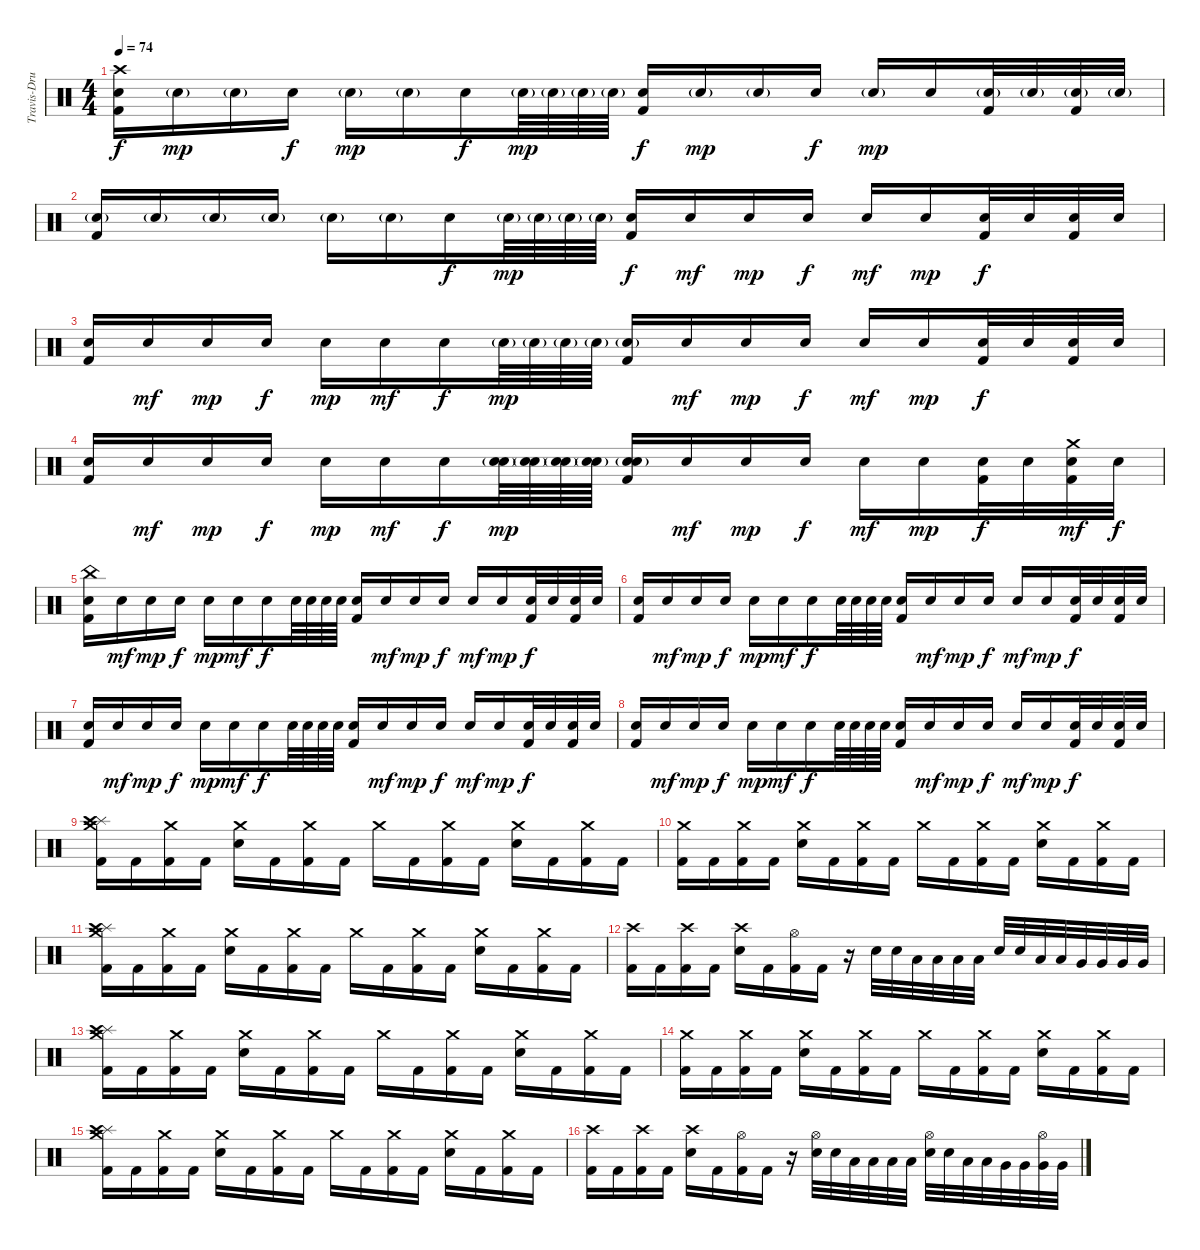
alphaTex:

\track ("Travis-Drums" "Travis-Dru") {instrument percussion}
\staff {score}
\articulation defaults
\ts (4 4)
\tempo 74
\clef neutral
\ks c
("Crash high (hit)" "Snare (hit) 2" "Kick (hit) 2").16{dy f} "Snare (hit) 2"{g}.16{dy mp} "Snare (hit) 2"{g}.16 "Snare (hit) 2".16{dy f} "Snare (hit) 2"{g}.16{dy mp} "Snare (hit) 2"{g}.16 "Snare (hit) 2".16{dy f} "Snare (hit) 2"{g}.64{dy mp} "Snare (hit) 2"{g}.64 "Snare (hit) 2"{g}.64 "Snare (hit) 2"{g}.64 ("Snare (hit) 2" "Kick (hit) 2").16{dy f} "Snare (hit) 2"{g}.16{dy mp} "Snare (hit) 2"{g}.16 "Snare (hit) 2".16{dy f} "Snare (hit) 2"{g}.16{dy mp} "Snare (hit) 2".16 ("Snare (hit) 2"{g} "Kick (hit) 2").32 "Snare (hit) 2"{g}.32 ("Snare (hit) 2"{g} "Kick (hit) 2").32 "Snare (hit) 2"{g}.32 |
("Snare (hit) 2"{g} "Kick (hit) 2").16 "Snare (hit) 2"{g}.16 "Snare (hit) 2"{g}.16 "Snare (hit) 2"{g}.16 "Snare (hit) 2"{g}.16 "Snare (hit) 2"{g}.16 "Snare (hit) 2".16{dy f} "Snare (hit) 2"{g}.64{dy mp} "Snare (hit) 2"{g}.64 "Snare (hit) 2"{g}.64 "Snare (hit) 2"{g}.64 ("Snare (hit) 2" "Kick (hit) 2").16{dy f} "Snare (hit) 2".16{dy mf} "Snare (hit) 2".16{dy mp} "Snare (hit) 2".16{dy f} "Snare (hit) 2".16{dy mf} "Snare (hit) 2".16{dy mp} ("Snare (hit) 2" "Kick (hit) 2").32{dy f} "Snare (hit) 2".32 ("Snare (hit) 2" "Kick (hit) 2").32 "Snare (hit) 2".32 |
("Snare (hit) 2" "Kick (hit) 2").16 "Snare (hit) 2".16{dy mf} "Snare (hit) 2".16{dy mp} "Snare (hit) 2".16{dy f} "Snare (hit) 2".16{dy mp} "Snare (hit) 2".16{dy mf} "Snare (hit) 2".16{dy f} "Snare (hit) 2"{g}.64{dy mp} "Snare (hit) 2"{g}.64 "Snare (hit) 2"{g}.64 "Snare (hit) 2"{g}.64 ("Snare (hit) 2"{g} "Kick (hit) 2").16 "Snare (hit) 2".16{dy mf} "Snare (hit) 2".16{dy mp} "Snare (hit) 2".16{dy f} "Snare (hit) 2".16{dy mf} "Snare (hit) 2".16{dy mp} ("Snare (hit) 2" "Kick (hit) 2").32{dy f} "Snare (hit) 2".32 ("Snare (hit) 2" "Kick (hit) 2").32 "Snare (hit) 2".32 |
("Snare (hit) 2" "Kick (hit) 2").16 "Snare (hit) 2".16{dy mf} "Snare (hit) 2".16{dy mp} "Snare (hit) 2".16{dy f} "Snare (hit) 2".16{dy mp} "Snare (hit) 2".16{dy mf} "Snare (hit) 2".16{dy f} ("Snare (hit) 2"{g} "Snare (hit) 2"{g}).64{dy mp} ("Snare (hit) 2"{g} "Snare (hit) 2"{g}).64 ("Snare (hit) 2"{g} "Snare (hit) 2"{g}).64 ("Snare (hit) 2"{g} "Snare (hit) 2"{g}).64 ("Snare (hit) 2"{g} "Snare (hit) 2"{g} "Kick (hit) 2").16 "Snare (hit) 2".16{dy mf} "Snare (hit) 2".16{dy mp} "Snare (hit) 2".16{dy f} "Snare (hit) 2".16{dy mf} "Snare (hit) 2".16{dy mp} ("Snare (hit) 2" "Kick (hit) 2").32{dy f} "Snare (hit) 2".32 ("Crash medium (hit)" "Snare (hit) 2" "Kick (hit) 2").32{dy mf} "Snare (hit) 2".32{dy f} |
("China (hit)" "Snare (hit) 2" "Kick (hit) 2").16 "Snare (hit) 2".16{dy mf} "Snare (hit) 2".16{dy mp} "Snare (hit) 2".16{dy f} "Snare (hit) 2".16{dy mp} "Snare (hit) 2".16{dy mf} "Snare (hit) 2".16{dy f} "Snare (hit) 2".64 "Snare (hit) 2".64 "Snare (hit) 2".64 "Snare (hit) 2".64 ("Snare (hit) 2" "Kick (hit) 2").16 "Snare (hit) 2".16{dy mf} "Snare (hit) 2".16{dy mp} "Snare (hit) 2".16{dy f} "Snare (hit) 2".16{dy mf} "Snare (hit) 2".16{dy mp} ("Snare (hit) 2" "Kick (hit) 2").32{dy f} "Snare (hit) 2".32 ("Snare (hit) 2" "Kick (hit) 2").32 "Snare (hit) 2".32 |
("Snare (hit) 2" "Kick (hit) 2").16 "Snare (hit) 2".16{dy mf} "Snare (hit) 2".16{dy mp} "Snare (hit) 2".16{dy f} "Snare (hit) 2".16{dy mp} "Snare (hit) 2".16{dy mf} "Snare (hit) 2".16{dy f} "Snare (hit) 2".64 "Snare (hit) 2".64 "Snare (hit) 2".64 "Snare (hit) 2".64 ("Snare (hit) 2" "Kick (hit) 2").16 "Snare (hit) 2".16{dy mf} "Snare (hit) 2".16{dy mp} "Snare (hit) 2".16{dy f} "Snare (hit) 2".16{dy mf} "Snare (hit) 2".16{dy mp} ("Snare (hit) 2" "Kick (hit) 2").32{dy f} "Snare (hit) 2".32 ("Snare (hit) 2" "Kick (hit) 2").32 "Snare (hit) 2".32 |
("Snare (hit) 2" "Kick (hit) 2").16 "Snare (hit) 2".16{dy mf} "Snare (hit) 2".16{dy mp} "Snare (hit) 2".16{dy f} "Snare (hit) 2".16{dy mp} "Snare (hit) 2".16{dy mf} "Snare (hit) 2".16{dy f} "Snare (hit) 2".64 "Snare (hit) 2".64 "Snare (hit) 2".64 "Snare (hit) 2".64 ("Snare (hit) 2" "Kick (hit) 2").16 "Snare (hit) 2".16{dy mf} "Snare (hit) 2".16{dy mp} "Snare (hit) 2".16{dy f} "Snare (hit) 2".16{dy mf} "Snare (hit) 2".16{dy mp} ("Snare (hit) 2" "Kick (hit) 2").32{dy f} "Snare (hit) 2".32 ("Snare (hit) 2" "Kick (hit) 2").32 "Snare (hit) 2".32 |
("Snare (hit) 2" "Kick (hit) 2").16 "Snare (hit) 2".16{dy mf} "Snare (hit) 2".16{dy mp} "Snare (hit) 2".16{dy f} "Snare (hit) 2".16{dy mp} "Snare (hit) 2".16{dy mf} "Snare (hit) 2".16{dy f} "Snare (hit) 2".64 "Snare (hit) 2".64 "Snare (hit) 2".64 "Snare (hit) 2".64 ("Snare (hit) 2" "Kick (hit) 2").16 "Snare (hit) 2".16{dy mf} "Snare (hit) 2".16{dy mp} "Snare (hit) 2".16{dy f} "Snare (hit) 2".16{dy mf} "Snare (hit) 2".16{dy mp} ("Snare (hit) 2" "Kick (hit) 2").32{dy f} "Snare (hit) 2".32 ("Snare (hit) 2" "Kick (hit) 2").32 "Snare (hit) 2".32 |
("Splash (hit)" "Crash high (hit)" "Crash medium (hit)" "Kick (hit) 2").16 "Kick (hit) 2".16 ("Crash medium (hit)" "Kick (hit) 2").16 "Kick (hit) 2".16 ("Crash medium (hit)" "Snare (hit) 2").16 "Kick (hit) 2".16 ("Crash medium (hit)" "Kick (hit) 2").16 "Kick (hit) 2".16 "Crash medium (hit)".16 "Kick (hit) 2".16 ("Crash medium (hit)" "Kick (hit) 2").16 "Kick (hit) 2".16 ("Crash medium (hit)" "Snare (hit) 2").16 "Kick (hit) 2".16 ("Crash medium (hit)" "Kick (hit) 2").16 "Kick (hit) 2".16 |
("Crash medium (hit)" "Kick (hit) 2").16 "Kick (hit) 2".16 ("Crash medium (hit)" "Kick (hit) 2").16 "Kick (hit) 2".16 ("Crash medium (hit)" "Snare (hit) 2").16 "Kick (hit) 2".16 ("Crash medium (hit)" "Kick (hit) 2").16 "Kick (hit) 2".16 "Crash medium (hit)".16 "Kick (hit) 2".16 ("Crash medium (hit)" "Kick (hit) 2").16 "Kick (hit) 2".16 ("Crash medium (hit)" "Snare (hit) 2").16 "Kick (hit) 2".16 ("Crash medium (hit)" "Kick (hit) 2").16 "Kick (hit) 2".16 |
("Splash (hit)" "Crash high (hit)" "Crash medium (hit)" "Kick (hit) 2").16 "Kick (hit) 2".16 ("Crash medium (hit)" "Kick (hit) 2").16 "Kick (hit) 2".16 ("Crash medium (hit)" "Snare (hit) 2").16 "Kick (hit) 2".16 ("Crash medium (hit)" "Kick (hit) 2").16 "Kick (hit) 2".16 "Crash medium (hit)".16 "Kick (hit) 2".16 ("Crash medium (hit)" "Kick (hit) 2").16 "Kick (hit) 2".16 ("Crash medium (hit)" "Snare (hit) 2").16 "Kick (hit) 2".16 ("Crash medium (hit)" "Kick (hit) 2").16 "Kick (hit) 2".16 |
("Crash high (hit)" "Kick (hit) 2").16 "Kick (hit) 2".16 ("Crash high (hit)" "Kick (hit) 2").16 "Kick (hit) 2".16 ("Crash high (hit)" "Electric Snare (hit)").16 "Kick (hit) 2".16 ("Hi-Hat (open)" "Kick (hit) 2").16 "Kick (hit) 2".16 r.16 "Electric Snare (hit)".32 "Electric Snare (hit)".32 "Low Tom (hit)".32 "Low Tom (hit)".32 "Low Tom (hit)".32 "Low Tom (hit)".32 "Electric Snare (hit)".32 "Electric Snare (hit)".32 "Low Tom (hit)".32 "Low Tom (hit)".32 "Very Low Tom (hit)".32 "Very Low Tom (hit)".32 "Very Low Tom (hit)".32 "Very Low Tom (hit)".32 |
("Splash (hit)" "Crash high (hit)" "Crash medium (hit)" "Kick (hit) 2").16 "Kick (hit) 2".16 ("Crash medium (hit)" "Kick (hit) 2").16 "Kick (hit) 2".16 ("Crash medium (hit)" "Snare (hit) 2").16 "Kick (hit) 2".16 ("Crash medium (hit)" "Kick (hit) 2").16 "Kick (hit) 2".16 "Crash medium (hit)".16 "Kick (hit) 2".16 ("Crash medium (hit)" "Kick (hit) 2").16 "Kick (hit) 2".16 ("Crash medium (hit)" "Snare (hit) 2").16 "Kick (hit) 2".16 ("Crash medium (hit)" "Kick (hit) 2").16 "Kick (hit) 2".16 |
("Crash medium (hit)" "Kick (hit) 2").16 "Kick (hit) 2".16 ("Crash medium (hit)" "Kick (hit) 2").16 "Kick (hit) 2".16 ("Crash medium (hit)" "Snare (hit) 2").16 "Kick (hit) 2".16 ("Crash medium (hit)" "Kick (hit) 2").16 "Kick (hit) 2".16 "Crash medium (hit)".16 "Kick (hit) 2".16 ("Crash medium (hit)" "Kick (hit) 2").16 "Kick (hit) 2".16 ("Crash medium (hit)" "Snare (hit) 2").16 "Kick (hit) 2".16 ("Crash medium (hit)" "Kick (hit) 2").16 "Kick (hit) 2".16 |
("Splash (hit)" "Crash high (hit)" "Crash medium (hit)" "Kick (hit) 2").16 "Kick (hit) 2".16 ("Crash medium (hit)" "Kick (hit) 2").16 "Kick (hit) 2".16 ("Crash medium (hit)" "Snare (hit) 2").16 "Kick (hit) 2".16 ("Crash medium (hit)" "Kick (hit) 2").16 "Kick (hit) 2".16 "Crash medium (hit)".16 "Kick (hit) 2".16 ("Crash medium (hit)" "Kick (hit) 2").16 "Kick (hit) 2".16 ("Crash medium (hit)" "Snare (hit) 2").16 "Kick (hit) 2".16 ("Crash medium (hit)" "Kick (hit) 2").16 "Kick (hit) 2".16 |
("Crash high (hit)" "Kick (hit) 2").16 "Kick (hit) 2".16 ("Crash high (hit)" "Kick (hit) 2").16 "Kick (hit) 2".16 ("Crash high (hit)" "Snare (hit) 2").16 "Kick (hit) 2".16 ("Hi-Hat (open)" "Kick (hit) 2").16 "Kick (hit) 2".16 r.16 ("Hi-Hat (open)" "Electric Snare (hit)").32 "Electric Snare (hit)".32 "Low Tom (hit)".32 "Low Tom (hit)".32 "Low Tom (hit)".32 "Low Tom (hit)".32 ("Hi-Hat (open)" "Electric Snare (hit)").32 "Electric Snare (hit)".32 "Low Tom (hit)".32 "Low Tom (hit)".32 "Very Low Tom (hit)".32 "Very Low Tom (hit)".32 ("Hi-Hat (open)" "Very Low Tom (hit)").32 "Very Low Tom (hit)".32
